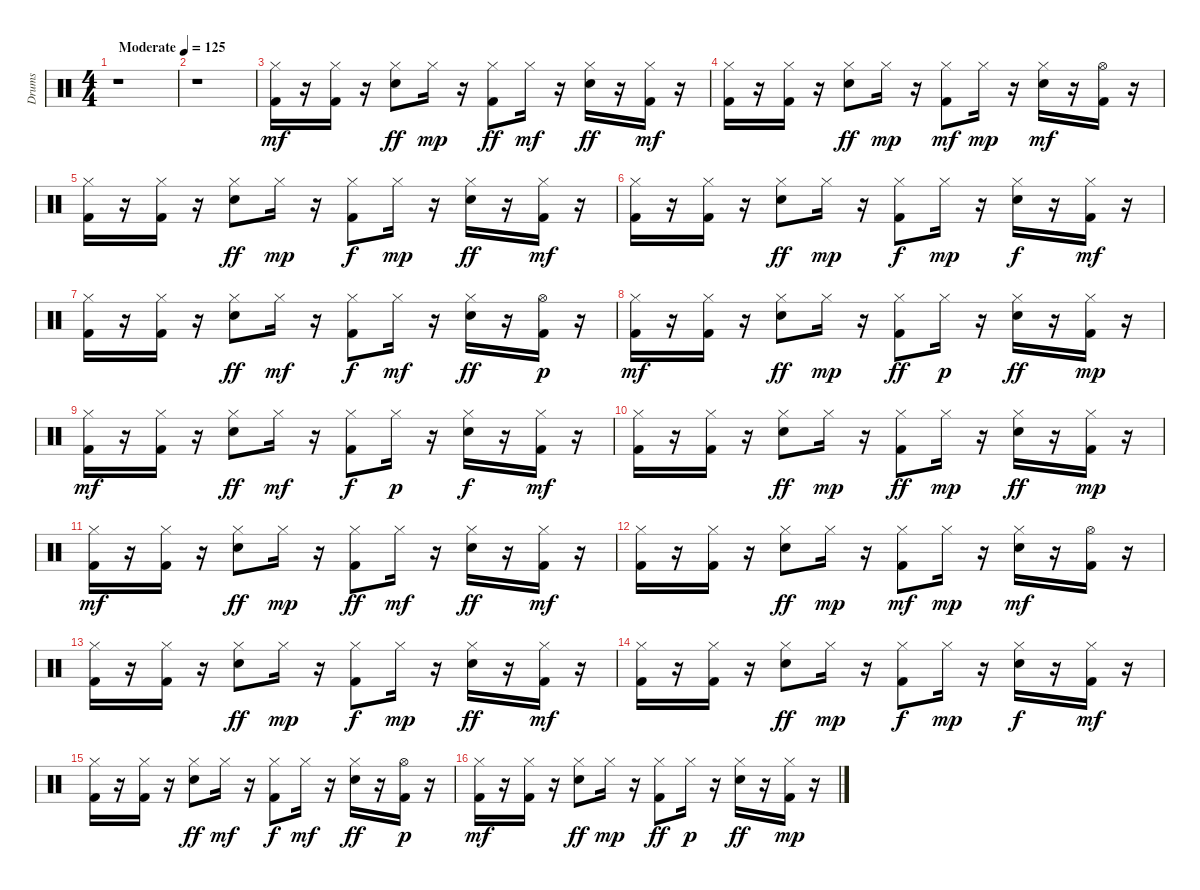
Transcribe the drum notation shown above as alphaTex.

\track ("Drums" "Drums") {instrument percussion}
\staff {score}
\articulation defaults
\ts (4 4)
\tempo (125 "Moderate")
\clef neutral
\ks c
r.1{dy mf} |
r.1 |
("Hi-Hat (closed)" "Kick (hit) 2").16 r.16 ("Hi-Hat (closed)" "Kick (hit) 2").16 r.16 ("Hi-Hat (closed)" "Snare (hit) 2").8{dy ff} "Hi-Hat (closed)".16{dy mp} r.16 ("Hi-Hat (closed)" "Kick (hit) 2").8{dy ff} "Hi-Hat (closed)".16{dy mf} r.16 ("Snare (hit) 2" "Hi-Hat (closed)").16{dy ff} r.16 ("Kick (hit) 2" "Hi-Hat (closed)").16{dy mf} r.16 |
("Hi-Hat (closed)" "Kick (hit) 2").16 r.16 ("Kick (hit) 2" "Hi-Hat (closed)").16 r.16 ("Hi-Hat (closed)" "Snare (hit) 2").8{dy ff} "Hi-Hat (closed)".16{dy mp} r.16 ("Kick (hit) 2" "Hi-Hat (closed)").8{dy mf} "Hi-Hat (closed)".16{dy mp} r.16 ("Snare (hit) 2" "Hi-Hat (closed)").16{dy mf} r.16 ("Hi-Hat (open)" "Kick (hit) 2").16 r.16 |
("Hi-Hat (closed)" "Kick (hit) 2").16 r.16 ("Hi-Hat (closed)" "Kick (hit) 2").16 r.16 ("Snare (hit) 2" "Hi-Hat (closed)").8{dy ff} "Hi-Hat (closed)".16{dy mp} r.16 ("Hi-Hat (closed)" "Kick (hit) 2").8{dy f} "Hi-Hat (closed)".16{dy mp} r.16 ("Hi-Hat (closed)" "Snare (hit) 2").16{dy ff} r.16 ("Hi-Hat (closed)" "Kick (hit) 2").16{dy mf} r.16 |
("Hi-Hat (closed)" "Kick (hit) 2").16 r.16 ("Hi-Hat (closed)" "Kick (hit) 2").16 r.16 ("Hi-Hat (closed)" "Snare (hit) 2").8{dy ff} "Hi-Hat (closed)".16{dy mp} r.16 ("Hi-Hat (closed)" "Kick (hit) 2").8{dy f} "Hi-Hat (closed)".16{dy mp} r.16 ("Snare (hit) 2" "Hi-Hat (closed)").16{dy f} r.16 ("Kick (hit) 2" "Hi-Hat (closed)").16{dy mf} r.16 |
("Hi-Hat (closed)" "Kick (hit) 2").16 r.16 ("Kick (hit) 2" "Hi-Hat (closed)").16 r.16 ("Snare (hit) 2" "Hi-Hat (closed)").8{dy ff} "Hi-Hat (closed)".16{dy mf} r.16 ("Kick (hit) 2" "Hi-Hat (closed)").8{dy f} "Hi-Hat (closed)".16{dy mf} r.16 ("Hi-Hat (closed)" "Snare (hit) 2").16{dy ff} r.16 ("Kick (hit) 2" "Hi-Hat (open)").16{dy p} r.16 |
("Hi-Hat (closed)" "Kick (hit) 2").16{dy mf} r.16 ("Kick (hit) 2" "Hi-Hat (closed)").16 r.16 ("Hi-Hat (closed)" "Snare (hit) 2").8{dy ff} "Hi-Hat (closed)".16{dy mp} r.16 ("Kick (hit) 2" "Hi-Hat (closed)").8{dy ff} "Hi-Hat (closed)".16{dy p} r.16 ("Hi-Hat (closed)" "Snare (hit) 2").16{dy ff} r.16 ("Hi-Hat (closed)" "Kick (hit) 2").16{dy mp} r.16 |
("Hi-Hat (closed)" "Kick (hit) 2").16{dy mf} r.16 ("Hi-Hat (closed)" "Kick (hit) 2").16 r.16 ("Snare (hit) 2" "Hi-Hat (closed)").8{dy ff} "Hi-Hat (closed)".16{dy mf} r.16 ("Kick (hit) 2" "Hi-Hat (closed)").8{dy f} "Hi-Hat (closed)".16{dy p} r.16 ("Snare (hit) 2" "Hi-Hat (closed)").16{dy f} r.16 ("Hi-Hat (closed)" "Kick (hit) 2").16{dy mf} r.16 |
("Hi-Hat (closed)" "Kick (hit) 2").16 r.16 ("Hi-Hat (closed)" "Kick (hit) 2").16 r.16 ("Snare (hit) 2" "Hi-Hat (closed)").8{dy ff} "Hi-Hat (closed)".16{dy mp} r.16 ("Kick (hit) 2" "Hi-Hat (closed)").8{dy ff} "Hi-Hat (closed)".16{dy mp} r.16 ("Snare (hit) 2" "Hi-Hat (closed)").16{dy ff} r.16 ("Hi-Hat (closed)" "Kick (hit) 2").16{dy mp} r.16 |
("Hi-Hat (closed)" "Kick (hit) 2").16{dy mf} r.16 ("Hi-Hat (closed)" "Kick (hit) 2").16 r.16 ("Hi-Hat (closed)" "Snare (hit) 2").8{dy ff} "Hi-Hat (closed)".16{dy mp} r.16 ("Hi-Hat (closed)" "Kick (hit) 2").8{dy ff} "Hi-Hat (closed)".16{dy mf} r.16 ("Snare (hit) 2" "Hi-Hat (closed)").16{dy ff} r.16 ("Kick (hit) 2" "Hi-Hat (closed)").16{dy mf} r.16 |
("Hi-Hat (closed)" "Kick (hit) 2").16 r.16 ("Kick (hit) 2" "Hi-Hat (closed)").16 r.16 ("Hi-Hat (closed)" "Snare (hit) 2").8{dy ff} "Hi-Hat (closed)".16{dy mp} r.16 ("Kick (hit) 2" "Hi-Hat (closed)").8{dy mf} "Hi-Hat (closed)".16{dy mp} r.16 ("Snare (hit) 2" "Hi-Hat (closed)").16{dy mf} r.16 ("Hi-Hat (open)" "Kick (hit) 2").16 r.16 |
("Hi-Hat (closed)" "Kick (hit) 2").16 r.16 ("Hi-Hat (closed)" "Kick (hit) 2").16 r.16 ("Snare (hit) 2" "Hi-Hat (closed)").8{dy ff} "Hi-Hat (closed)".16{dy mp} r.16 ("Hi-Hat (closed)" "Kick (hit) 2").8{dy f} "Hi-Hat (closed)".16{dy mp} r.16 ("Hi-Hat (closed)" "Snare (hit) 2").16{dy ff} r.16 ("Hi-Hat (closed)" "Kick (hit) 2").16{dy mf} r.16 |
("Hi-Hat (closed)" "Kick (hit) 2").16 r.16 ("Hi-Hat (closed)" "Kick (hit) 2").16 r.16 ("Hi-Hat (closed)" "Snare (hit) 2").8{dy ff} "Hi-Hat (closed)".16{dy mp} r.16 ("Hi-Hat (closed)" "Kick (hit) 2").8{dy f} "Hi-Hat (closed)".16{dy mp} r.16 ("Snare (hit) 2" "Hi-Hat (closed)").16{dy f} r.16 ("Kick (hit) 2" "Hi-Hat (closed)").16{dy mf} r.16 |
("Hi-Hat (closed)" "Kick (hit) 2").16 r.16 ("Kick (hit) 2" "Hi-Hat (closed)").16 r.16 ("Snare (hit) 2" "Hi-Hat (closed)").8{dy ff} "Hi-Hat (closed)".16{dy mf} r.16 ("Kick (hit) 2" "Hi-Hat (closed)").8{dy f} "Hi-Hat (closed)".16{dy mf} r.16 ("Hi-Hat (closed)" "Snare (hit) 2").16{dy ff} r.16 ("Kick (hit) 2" "Hi-Hat (open)").16{dy p} r.16 |
("Hi-Hat (closed)" "Kick (hit) 2").16{dy mf} r.16 ("Kick (hit) 2" "Hi-Hat (closed)").16 r.16 ("Hi-Hat (closed)" "Snare (hit) 2").8{dy ff} "Hi-Hat (closed)".16{dy mp} r.16 ("Kick (hit) 2" "Hi-Hat (closed)").8{dy ff} "Hi-Hat (closed)".16{dy p} r.16 ("Hi-Hat (closed)" "Snare (hit) 2").16{dy ff} r.16 ("Hi-Hat (closed)" "Kick (hit) 2").16{dy mp} r.16
